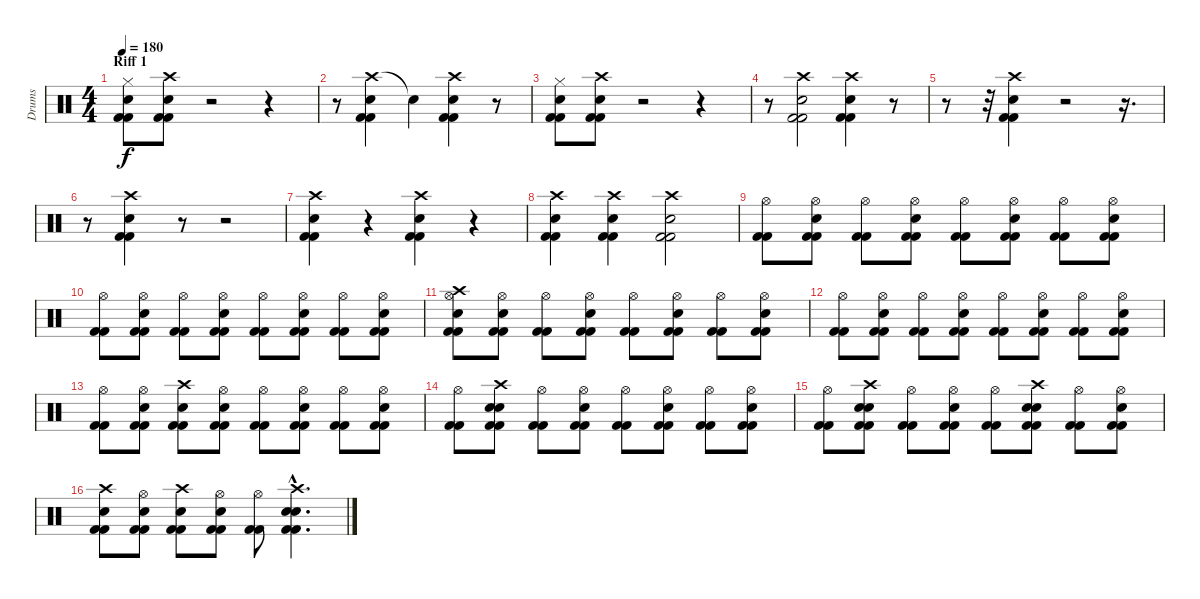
\track ("Drums" "Drums") {instrument percussion}
\staff {score}
\articulation defaults
\ts (4 4)
\section ("" "Riff 1")
\tempo 180
\clef neutral
\ks c
("Hi-Hat (closed)" "Snare (hit) 2" "Kick (hit) 2" "Kick (hit) 2").8{dy f} ("Crash high (hit)" "Snare (hit) 2" "Kick (hit) 2" "Kick (hit) 2").8 r.2 r.4 |
r.8 ("Crash high (hit)" "Snare (hit) 2" "Kick (hit) 2" "Kick (hit) 2").4 "Snare (hit)"{t}.4 ("Crash high (hit)" "Snare (hit) 2" "Kick (hit) 2" "Kick (hit) 2").4 r.8 |
("Hi-Hat (closed)" "Snare (hit) 2" "Kick (hit) 2" "Kick (hit) 2").8 ("Crash high (hit)" "Snare (hit) 2" "Kick (hit) 2" "Kick (hit) 2").8 r.2 r.4 |
r.8 ("Crash high (hit)" "Snare (hit) 2" "Kick (hit) 2" "Kick (hit) 2").2 ("Crash high (hit)" "Snare (hit) 2" "Kick (hit) 2" "Kick (hit) 2").4 r.8 |
r.8 r.32 ("Crash high (hit)" "Snare (hit) 2" "Kick (hit) 2" "Kick (hit) 2").4 r.2 r.16{d} |
r.8 ("Crash high (hit)" "Snare (hit) 2" "Kick (hit) 2" "Kick (hit) 2").4 r.8 r.2 |
("Crash high (hit)" "Snare (hit) 2" "Kick (hit) 2" "Kick (hit) 2").4 r.4 ("Crash high (hit)" "Snare (hit) 2" "Kick (hit) 2" "Kick (hit) 2").4 r.4 |
("Crash high (hit)" "Snare (hit) 2" "Kick (hit) 2" "Kick (hit) 2").4 ("Crash high (hit)" "Snare (hit) 2" "Kick (hit) 2" "Kick (hit) 2").4 ("Crash high (hit)" "Snare (hit) 2" "Kick (hit) 2" "Kick (hit) 2").2 |
("Hi-Hat (open)" "Kick (hit) 2" "Kick (hit) 2").8 ("Hi-Hat (open)" "Snare (hit) 2" "Kick (hit) 2" "Kick (hit) 2").8 ("Hi-Hat (open)" "Kick (hit) 2" "Kick (hit) 2").8 ("Hi-Hat (open)" "Snare (hit) 2" "Kick (hit) 2" "Kick (hit) 2").8 ("Hi-Hat (open)" "Kick (hit) 2" "Kick (hit) 2").8 ("Hi-Hat (open)" "Snare (hit) 2" "Kick (hit) 2" "Kick (hit) 2").8 ("Hi-Hat (open)" "Kick (hit) 2" "Kick (hit) 2").8 ("Hi-Hat (open)" "Snare (hit) 2" "Kick (hit) 2" "Kick (hit) 2").8 |
("Hi-Hat (open)" "Kick (hit) 2" "Kick (hit) 2").8 ("Hi-Hat (open)" "Snare (hit) 2" "Kick (hit) 2" "Kick (hit) 2").8 ("Hi-Hat (open)" "Kick (hit) 2" "Kick (hit) 2").8 ("Hi-Hat (open)" "Snare (hit) 2" "Kick (hit) 2" "Kick (hit) 2").8 ("Hi-Hat (open)" "Kick (hit) 2" "Kick (hit) 2").8 ("Hi-Hat (open)" "Snare (hit) 2" "Kick (hit) 2" "Kick (hit) 2").8 ("Hi-Hat (open)" "Kick (hit) 2" "Kick (hit) 2").8 ("Hi-Hat (open)" "Snare (hit) 2" "Kick (hit) 2" "Kick (hit) 2").8 |
("Hi-Hat (open)" "Crash high (hit)" "Snare (hit)" "Kick (hit) 2" "Kick (hit) 2").8 ("Hi-Hat (open)" "Snare (hit) 2" "Kick (hit) 2" "Kick (hit) 2").8 ("Hi-Hat (open)" "Kick (hit) 2" "Kick (hit) 2").8 ("Hi-Hat (open)" "Snare (hit) 2" "Kick (hit) 2" "Kick (hit) 2").8 ("Hi-Hat (open)" "Kick (hit) 2" "Kick (hit) 2").8 ("Hi-Hat (open)" "Snare (hit) 2" "Kick (hit) 2" "Kick (hit) 2").8 ("Hi-Hat (open)" "Kick (hit) 2" "Kick (hit) 2").8 ("Hi-Hat (open)" "Snare (hit) 2" "Kick (hit) 2" "Kick (hit) 2").8 |
("Hi-Hat (open)" "Kick (hit) 2" "Kick (hit) 2").8 ("Hi-Hat (open)" "Snare (hit) 2" "Kick (hit) 2" "Kick (hit) 2").8 ("Hi-Hat (open)" "Kick (hit) 2" "Kick (hit) 2").8 ("Hi-Hat (open)" "Snare (hit) 2" "Kick (hit) 2" "Kick (hit) 2").8 ("Hi-Hat (open)" "Kick (hit) 2" "Kick (hit) 2").8 ("Hi-Hat (open)" "Snare (hit) 2" "Kick (hit) 2" "Kick (hit) 2").8 ("Hi-Hat (open)" "Kick (hit) 2" "Kick (hit) 2").8 ("Hi-Hat (open)" "Snare (hit) 2" "Kick (hit) 2" "Kick (hit) 2").8 |
("Hi-Hat (open)" "Kick (hit) 2" "Kick (hit) 2").8 ("Hi-Hat (open)" "Snare (hit) 2" "Kick (hit) 2" "Kick (hit) 2").8 ("Crash high (hit)" "Snare (hit)" "Kick (hit) 2" "Kick (hit) 2").8 ("Hi-Hat (open)" "Snare (hit) 2" "Kick (hit) 2" "Kick (hit) 2").8 ("Hi-Hat (open)" "Kick (hit) 2" "Kick (hit) 2").8 ("Hi-Hat (open)" "Snare (hit) 2" "Kick (hit) 2" "Kick (hit) 2").8 ("Hi-Hat (open)" "Kick (hit) 2" "Kick (hit) 2").8 ("Hi-Hat (open)" "Snare (hit) 2" "Kick (hit) 2" "Kick (hit) 2").8 |
("Hi-Hat (open)" "Kick (hit) 2" "Kick (hit) 2").8 ("Crash high (hit)" "Snare (hit) 2" "Snare (hit)" "Kick (hit) 2" "Kick (hit) 2").8 ("Hi-Hat (open)" "Kick (hit) 2" "Kick (hit) 2").8 ("Hi-Hat (open)" "Snare (hit) 2" "Kick (hit) 2" "Kick (hit) 2").8 ("Hi-Hat (open)" "Kick (hit) 2" "Kick (hit) 2").8 ("Hi-Hat (open)" "Snare (hit) 2" "Kick (hit) 2" "Kick (hit) 2").8 ("Hi-Hat (open)" "Kick (hit) 2" "Kick (hit) 2").8 ("Hi-Hat (open)" "Snare (hit) 2" "Kick (hit) 2" "Kick (hit) 2").8 |
("Hi-Hat (open)" "Kick (hit) 2" "Kick (hit) 2").8 ("Crash high (hit)" "Snare (hit) 2" "Snare (hit)" "Kick (hit) 2" "Kick (hit) 2").8 ("Hi-Hat (open)" "Kick (hit) 2" "Kick (hit) 2").8 ("Hi-Hat (open)" "Snare (hit) 2" "Kick (hit) 2" "Kick (hit) 2").8 ("Hi-Hat (open)" "Kick (hit) 2" "Kick (hit) 2").8 ("Crash high (hit)" "Snare (hit) 2" "Snare (hit)" "Kick (hit) 2" "Kick (hit) 2").8 ("Hi-Hat (open)" "Kick (hit) 2" "Kick (hit) 2").8 ("Hi-Hat (open)" "Snare (hit) 2" "Kick (hit) 2" "Kick (hit) 2").8 |
("Crash high (hit)" "Snare (hit)" "Kick (hit) 2" "Kick (hit) 2").8 ("Hi-Hat (open)" "Snare (hit) 2" "Kick (hit) 2" "Kick (hit) 2").8 ("Crash high (hit)" "Snare (hit)" "Kick (hit) 2" "Kick (hit) 2").8 ("Hi-Hat (open)" "Snare (hit) 2" "Kick (hit) 2" "Kick (hit) 2").8 ("Hi-Hat (open)" "Kick (hit) 2" "Kick (hit) 2").8 ("Crash high (hit)"{hac} "Snare (hit) 2"{hac} "Snare (hit)"{hac} "Kick (hit) 2"{hac} "Kick (hit) 2"{hac}).4{d}
